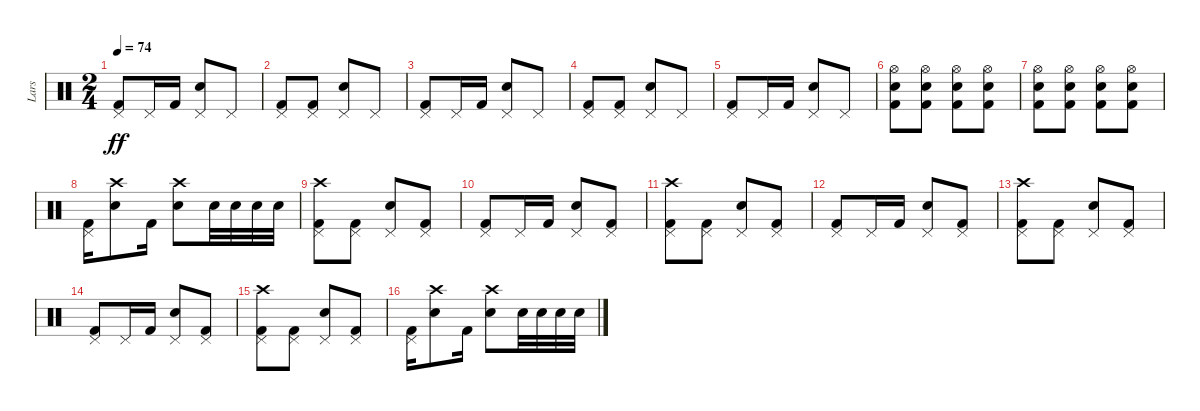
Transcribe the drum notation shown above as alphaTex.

\track ("Lars" "Lars") {instrument percussion}
\staff {score}
\articulation defaults
\ts (2 4)
\tempo 74
\clef neutral
\ks c
("Pedal Hi-Hat (hit)" "Kick (hit) 2").8{dy ff} "Pedal Hi-Hat (hit)".16 "Kick (hit) 2".16 ("Pedal Hi-Hat (hit)" "Snare (hit) 2").8 "Pedal Hi-Hat (hit)".8 |
("Pedal Hi-Hat (hit)" "Kick (hit) 2").8 ("Pedal Hi-Hat (hit)" "Kick (hit) 2").8 ("Pedal Hi-Hat (hit)" "Snare (hit) 2").8 "Pedal Hi-Hat (hit)".8 |
("Pedal Hi-Hat (hit)" "Kick (hit) 2").8 "Pedal Hi-Hat (hit)".16 "Kick (hit) 2".16 ("Pedal Hi-Hat (hit)" "Snare (hit) 2").8 "Pedal Hi-Hat (hit)".8 |
("Pedal Hi-Hat (hit)" "Kick (hit) 2").8 ("Pedal Hi-Hat (hit)" "Kick (hit) 2").8 ("Pedal Hi-Hat (hit)" "Snare (hit) 2").8 "Pedal Hi-Hat (hit)".8 |
("Pedal Hi-Hat (hit)" "Kick (hit) 2").8 "Pedal Hi-Hat (hit)".16 "Kick (hit) 2".16 ("Pedal Hi-Hat (hit)" "Snare (hit) 2").8 "Pedal Hi-Hat (hit)".8 |
("Hi-Hat (open)" "Snare (hit) 2" "Kick (hit) 2").8 ("Hi-Hat (open)" "Snare (hit) 2" "Kick (hit) 2").8 ("Hi-Hat (open)" "Snare (hit) 2" "Kick (hit) 2").8 ("Hi-Hat (open)" "Snare (hit) 2" "Kick (hit) 2").8 |
("Hi-Hat (open)" "Snare (hit) 2" "Kick (hit) 2").8 ("Hi-Hat (open)" "Snare (hit) 2" "Kick (hit) 2").8 ("Hi-Hat (open)" "Snare (hit) 2" "Kick (hit) 2").8 ("Hi-Hat (open)" "Snare (hit) 2" "Kick (hit) 2").8 |
("Pedal Hi-Hat (hit)" "Kick (hit) 2").16 ("Crash high (hit)" "Snare (hit) 2").8 "Kick (hit) 2".16 ("Crash high (hit)" "Snare (hit) 2").8 "Snare (hit) 2".32 "Snare (hit) 2".32 "Snare (hit) 2".32 "Snare (hit) 2".32 |
("Pedal Hi-Hat (hit)" "Crash high (hit)" "Kick (hit) 2").8 ("Pedal Hi-Hat (hit)" "Kick (hit) 2").8 ("Pedal Hi-Hat (hit)" "Snare (hit) 2").8 ("Pedal Hi-Hat (hit)" "Kick (hit) 2").8 |
("Pedal Hi-Hat (hit)" "Kick (hit) 2").8 "Pedal Hi-Hat (hit)".16 "Kick (hit) 2".16 ("Pedal Hi-Hat (hit)" "Snare (hit) 2").8 ("Pedal Hi-Hat (hit)" "Kick (hit) 2").8 |
("Pedal Hi-Hat (hit)" "Crash high (hit)" "Kick (hit) 2").8 ("Pedal Hi-Hat (hit)" "Kick (hit) 2").8 ("Pedal Hi-Hat (hit)" "Snare (hit) 2").8 ("Pedal Hi-Hat (hit)" "Kick (hit) 2").8 |
("Pedal Hi-Hat (hit)" "Kick (hit) 2").8 "Pedal Hi-Hat (hit)".16 "Kick (hit) 2".16 ("Pedal Hi-Hat (hit)" "Snare (hit) 2").8 ("Pedal Hi-Hat (hit)" "Kick (hit) 2").8 |
("Pedal Hi-Hat (hit)" "Crash high (hit)" "Kick (hit) 2").8 ("Pedal Hi-Hat (hit)" "Kick (hit) 2").8 ("Pedal Hi-Hat (hit)" "Snare (hit) 2").8 ("Pedal Hi-Hat (hit)" "Kick (hit) 2").8 |
("Pedal Hi-Hat (hit)" "Kick (hit) 2").8 "Pedal Hi-Hat (hit)".16 "Kick (hit) 2".16 ("Pedal Hi-Hat (hit)" "Snare (hit) 2").8 ("Pedal Hi-Hat (hit)" "Kick (hit) 2").8 |
("Pedal Hi-Hat (hit)" "Crash high (hit)" "Kick (hit) 2").8 ("Pedal Hi-Hat (hit)" "Kick (hit) 2").8 ("Pedal Hi-Hat (hit)" "Snare (hit) 2").8 ("Pedal Hi-Hat (hit)" "Kick (hit) 2").8 |
("Pedal Hi-Hat (hit)" "Kick (hit) 2").16 ("Crash high (hit)" "Snare (hit) 2").8 "Kick (hit) 2".16 ("Crash high (hit)" "Snare (hit) 2").8 "Snare (hit) 2".32 "Snare (hit) 2".32 "Snare (hit) 2".32 "Snare (hit) 2".32
